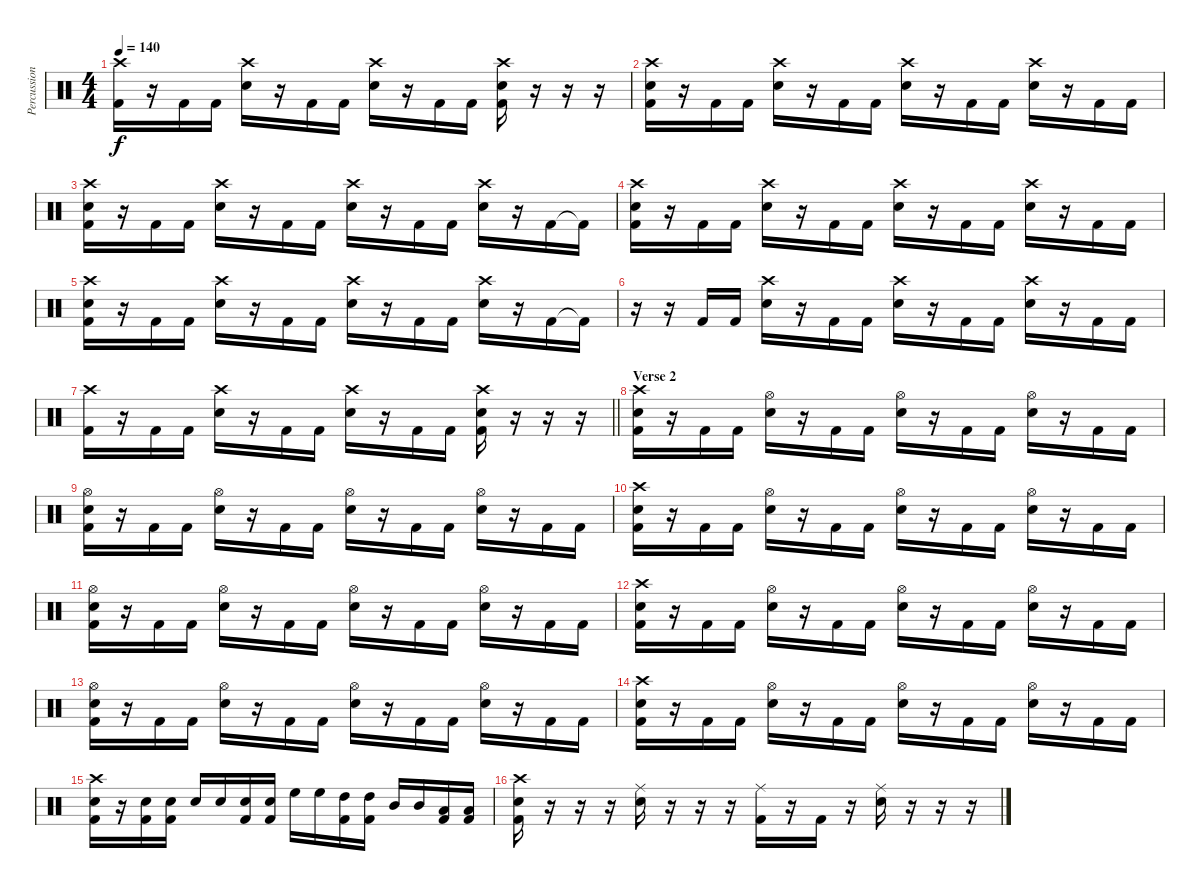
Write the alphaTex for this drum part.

\track ("Percussion" "Percussion") {instrument percussion}
\staff {score}
\articulation defaults
\ts (4 4)
\tempo 140
\clef neutral
\ks c
("Crash high (hit)" "Kick (hit) 2").16{dy f} r.16 "Kick (hit) 2".16 "Kick (hit) 2".16 ("Crash high (hit)" "Snare (hit) 2").16 r.16 "Kick (hit) 2".16 "Kick (hit) 2".16 ("Crash high (hit)" "Snare (hit) 2").16 r.16 "Kick (hit) 2".16 "Kick (hit) 2".16 ("Crash high (hit)" "Snare (hit) 2" "Kick (hit) 2").16 r.16 r.16 r.16 |
("Crash high (hit)" "Snare (hit) 2" "Kick (hit) 2").16 r.16 "Kick (hit) 2".16 "Kick (hit) 2".16 ("Crash high (hit)" "Snare (hit) 2").16 r.16 "Kick (hit) 2".16 "Kick (hit) 2".16 ("Crash high (hit)" "Snare (hit) 2").16 r.16 "Kick (hit) 2".16 "Kick (hit) 2".16 ("Crash high (hit)" "Snare (hit) 2").16 r.16 "Kick (hit) 2".16 "Kick (hit) 2".16 |
("Crash high (hit)" "Snare (hit) 2" "Kick (hit) 2").16 r.16 "Kick (hit) 2".16 "Kick (hit) 2".16 ("Crash high (hit)" "Snare (hit) 2").16 r.16 "Kick (hit) 2".16 "Kick (hit) 2".16 ("Crash high (hit)" "Snare (hit) 2").16 r.16 "Kick (hit) 2".16 "Kick (hit) 2".16 ("Crash high (hit)" "Snare (hit) 2").16 r.16 "Kick (hit) 2".16 "Kick (hit) 2"{t}.16 |
("Crash high (hit)" "Snare (hit) 2" "Kick (hit) 2").16 r.16 "Kick (hit) 2".16 "Kick (hit) 2".16 ("Crash high (hit)" "Snare (hit) 2").16 r.16 "Kick (hit) 2".16 "Kick (hit) 2".16 ("Crash high (hit)" "Snare (hit) 2").16 r.16 "Kick (hit) 2".16 "Kick (hit) 2".16 ("Crash high (hit)" "Snare (hit) 2").16 r.16 "Kick (hit) 2".16 "Kick (hit) 2".16 |
("Crash high (hit)" "Snare (hit) 2" "Kick (hit) 2").16 r.16 "Kick (hit) 2".16 "Kick (hit) 2".16 ("Crash high (hit)" "Snare (hit) 2").16 r.16 "Kick (hit) 2".16 "Kick (hit) 2".16 ("Crash high (hit)" "Snare (hit) 2").16 r.16 "Kick (hit) 2".16 "Kick (hit) 2".16 ("Crash high (hit)" "Snare (hit) 2").16 r.16 "Kick (hit) 2".16 "Kick (hit) 2"{t}.16 |
r.16 r.16 "Kick (hit) 2".16 "Kick (hit) 2".16 ("Crash high (hit)" "Snare (hit) 2").16 r.16 "Kick (hit) 2".16 "Kick (hit) 2".16 ("Crash high (hit)" "Snare (hit) 2").16 r.16 "Kick (hit) 2".16 "Kick (hit) 2".16 ("Crash high (hit)" "Snare (hit) 2").16 r.16 "Kick (hit) 2".16 "Kick (hit) 2".16 |
\barLineRight lightlight
("Crash high (hit)" "Kick (hit) 2").16 r.16 "Kick (hit) 2".16 "Kick (hit) 2".16 ("Crash high (hit)" "Snare (hit) 2").16 r.16 "Kick (hit) 2".16 "Kick (hit) 2".16 ("Crash high (hit)" "Snare (hit) 2").16 r.16 "Kick (hit) 2".16 "Kick (hit) 2".16 ("Crash high (hit)" "Snare (hit) 2" "Kick (hit) 2").16 r.16 r.16 r.16 |
\section ("" "Verse 2")
("Crash high (hit)" "Snare (hit) 2" "Kick (hit) 2").16 r.16 "Kick (hit) 2".16 "Kick (hit) 2".16 ("Hi-Hat (open)" "Snare (hit) 2").16 r.16 "Kick (hit) 2".16 "Kick (hit) 2".16 ("Hi-Hat (open)" "Snare (hit) 2").16 r.16 "Kick (hit) 2".16 "Kick (hit) 2".16 ("Hi-Hat (open)" "Snare (hit) 2").16 r.16 "Kick (hit) 2".16 "Kick (hit) 2".16 |
("Hi-Hat (open)" "Snare (hit) 2" "Kick (hit) 2").16 r.16 "Kick (hit) 2".16 "Kick (hit) 2".16 ("Hi-Hat (open)" "Snare (hit) 2").16 r.16 "Kick (hit) 2".16 "Kick (hit) 2".16 ("Hi-Hat (open)" "Snare (hit) 2").16 r.16 "Kick (hit) 2".16 "Kick (hit) 2".16 ("Hi-Hat (open)" "Snare (hit) 2").16 r.16 "Kick (hit) 2".16 "Kick (hit) 2".16 |
("Crash high (hit)" "Snare (hit) 2" "Kick (hit) 2").16 r.16 "Kick (hit) 2".16 "Kick (hit) 2".16 ("Hi-Hat (open)" "Snare (hit) 2").16 r.16 "Kick (hit) 2".16 "Kick (hit) 2".16 ("Hi-Hat (open)" "Snare (hit) 2").16 r.16 "Kick (hit) 2".16 "Kick (hit) 2".16 ("Hi-Hat (open)" "Snare (hit) 2").16 r.16 "Kick (hit) 2".16 "Kick (hit) 2".16 |
("Hi-Hat (open)" "Snare (hit) 2" "Kick (hit) 2").16 r.16 "Kick (hit) 2".16 "Kick (hit) 2".16 ("Hi-Hat (open)" "Snare (hit) 2").16 r.16 "Kick (hit) 2".16 "Kick (hit) 2".16 ("Hi-Hat (open)" "Snare (hit) 2").16 r.16 "Kick (hit) 2".16 "Kick (hit) 2".16 ("Hi-Hat (open)" "Snare (hit) 2").16 r.16 "Kick (hit) 2".16 "Kick (hit) 2".16 |
("Crash high (hit)" "Snare (hit) 2" "Kick (hit) 2").16 r.16 "Kick (hit) 2".16 "Kick (hit) 2".16 ("Hi-Hat (open)" "Snare (hit) 2").16 r.16 "Kick (hit) 2".16 "Kick (hit) 2".16 ("Hi-Hat (open)" "Snare (hit) 2").16 r.16 "Kick (hit) 2".16 "Kick (hit) 2".16 ("Hi-Hat (open)" "Snare (hit) 2").16 r.16 "Kick (hit) 2".16 "Kick (hit) 2".16 |
("Hi-Hat (open)" "Snare (hit) 2" "Kick (hit) 2").16 r.16 "Kick (hit) 2".16 "Kick (hit) 2".16 ("Hi-Hat (open)" "Snare (hit) 2").16 r.16 "Kick (hit) 2".16 "Kick (hit) 2".16 ("Hi-Hat (open)" "Snare (hit) 2").16 r.16 "Kick (hit) 2".16 "Kick (hit) 2".16 ("Hi-Hat (open)" "Snare (hit) 2").16 r.16 "Kick (hit) 2".16 "Kick (hit) 2".16 |
("Crash high (hit)" "Snare (hit) 2" "Kick (hit) 2").16 r.16 "Kick (hit) 2".16 "Kick (hit) 2".16 ("Hi-Hat (open)" "Snare (hit) 2").16 r.16 "Kick (hit) 2".16 "Kick (hit) 2".16 ("Hi-Hat (open)" "Snare (hit) 2").16 r.16 "Kick (hit) 2".16 "Kick (hit) 2".16 ("Hi-Hat (open)" "Snare (hit) 2").16 r.16 "Kick (hit) 2".16 "Kick (hit) 2".16 |
("Crash high (hit)" "Snare (hit) 2" "Kick (hit) 2").16 r.16 ("Snare (hit) 2" "Kick (hit) 2").16 ("Snare (hit) 2" "Kick (hit) 2").16 "Snare (hit) 2".16 "Snare (hit) 2".16 ("Snare (hit) 2" "Kick (hit) 2").16 ("Snare (hit) 2" "Kick (hit) 2").16 "High Floor Tom (hit)".16 "High Floor Tom (hit)".16 ("High Tom (hit)" "Kick (hit) 2").16 ("High Tom (hit)" "Kick (hit) 2").16 "Mid Tom (hit)".16 "Mid Tom (hit)".16 ("Low Tom (hit)" "Kick (hit) 2").16 ("Low Tom (hit)" "Kick (hit) 2").16 |
("Crash high (hit)" "Snare (hit) 2" "Kick (hit) 2").16 r.16 r.16 r.16 ("Ride (middle)" "Snare (hit) 2").16 r.16 r.16 r.16 ("Ride (middle)" "Kick (hit) 2").16 r.16 "Kick (hit) 2".16 r.16 ("Ride (middle)" "Snare (hit) 2").16 r.16 r.16 r.16
